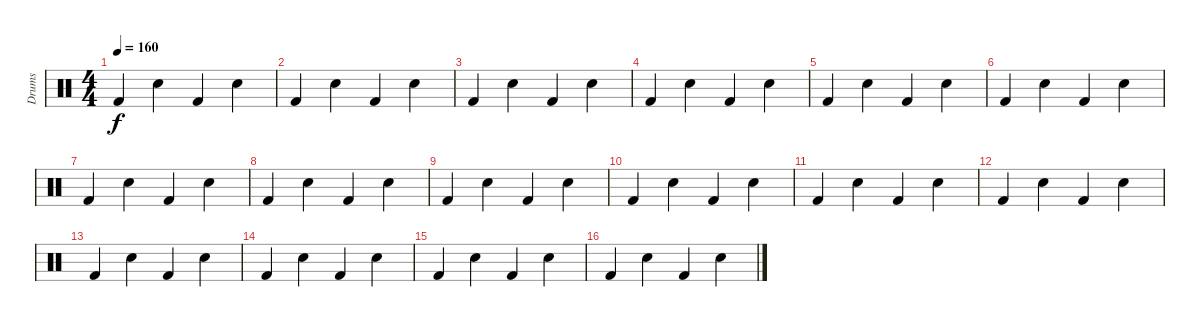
\track ("Drums" "Drums") {instrument percussion}
\staff {score}
\articulation defaults
\ts (4 4)
\tempo 160
\clef neutral
\ks c "Kick (hit) 2".4{dy f} "Snare (hit) 2".4 "Kick (hit) 2".4 "Snare (hit) 2".4
|
"Kick (hit) 2".4 "Snare (hit) 2".4 "Kick (hit) 2".4 "Snare (hit) 2".4 |
"Kick (hit) 2".4 "Snare (hit) 2".4 "Kick (hit) 2".4 "Snare (hit) 2".4 |
"Kick (hit) 2".4 "Snare (hit) 2".4 "Kick (hit) 2".4 "Snare (hit) 2".4 |
"Kick (hit) 2".4 "Snare (hit) 2".4 "Kick (hit) 2".4 "Snare (hit) 2".4 |
"Kick (hit) 2".4 "Snare (hit) 2".4 "Kick (hit) 2".4 "Snare (hit) 2".4 |
"Kick (hit) 2".4 "Snare (hit) 2".4 "Kick (hit) 2".4 "Snare (hit) 2".4 |
"Kick (hit) 2".4 "Snare (hit) 2".4 "Kick (hit) 2".4 "Snare (hit) 2".4 |
"Kick (hit) 2".4 "Snare (hit) 2".4 "Kick (hit) 2".4 "Snare (hit) 2".4 |
"Kick (hit) 2".4 "Snare (hit) 2".4 "Kick (hit) 2".4 "Snare (hit) 2".4 |
"Kick (hit) 2".4 "Snare (hit) 2".4 "Kick (hit) 2".4 "Snare (hit) 2".4 |
"Kick (hit) 2".4 "Snare (hit) 2".4 "Kick (hit) 2".4 "Snare (hit) 2".4 |
"Kick (hit) 2".4 "Snare (hit) 2".4 "Kick (hit) 2".4 "Snare (hit) 2".4 |
"Kick (hit) 2".4 "Snare (hit) 2".4 "Kick (hit) 2".4 "Snare (hit) 2".4 |
"Kick (hit) 2".4 "Snare (hit) 2".4 "Kick (hit) 2".4 "Snare (hit) 2".4 |
"Kick (hit) 2".4 "Snare (hit) 2".4 "Kick (hit) 2".4 "Snare (hit) 2".4
